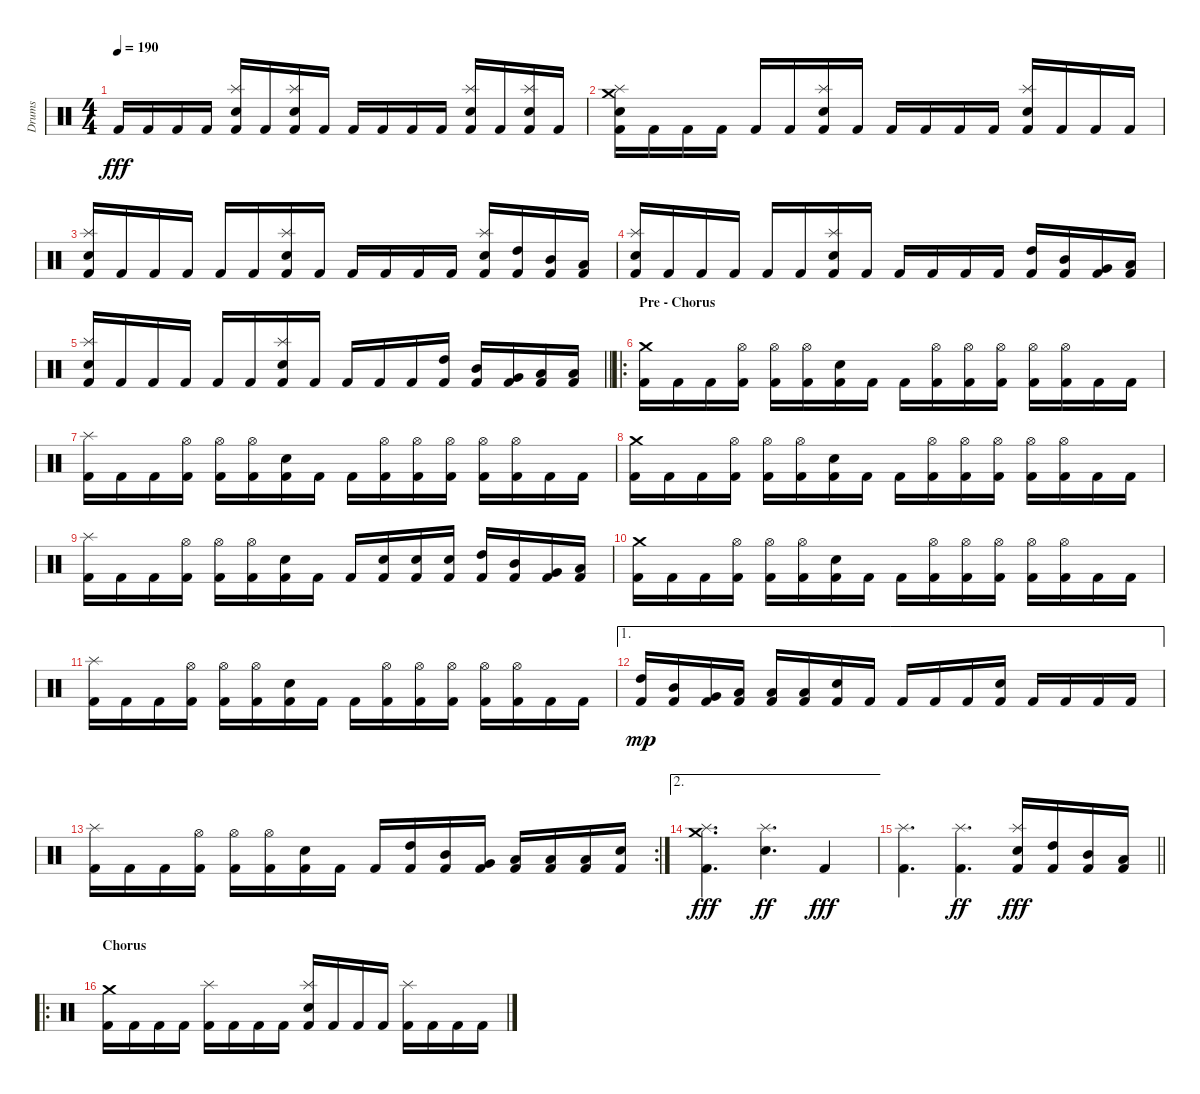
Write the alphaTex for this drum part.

\track ("Drums" "Drums") {instrument percussion}
\staff {score}
\articulation defaults
\ts (4 4)
\tempo 190
\clef neutral
\ks c "Kick (hit) 2".16{dy fff} "Kick (hit) 2".16 "Kick (hit) 2".16 "Kick (hit) 2".16
("Splash (hit)" "Electric Snare (hit)" "Kick (hit) 2").16 "Kick (hit) 2".16 ("Splash (hit)" "Electric Snare (hit)" "Kick (hit) 2").16 "Kick (hit) 2".16 "Kick (hit) 2".16 "Kick (hit) 2".16 "Kick (hit) 2".16 "Kick (hit) 2".16 ("Splash (hit)" "Electric Snare (hit)" "Kick (hit) 2").16 "Kick (hit) 2".16 ("Splash (hit)" "Electric Snare (hit)" "Kick (hit) 2").16 "Kick (hit) 2".16 |
("Crash medium (hit)" "Splash (hit)" "Electric Snare (hit)" "Kick (hit) 2").16 "Kick (hit) 2".16 "Kick (hit) 2".16 "Kick (hit) 2".16 "Kick (hit) 2".16 "Kick (hit) 2".16 ("Splash (hit)" "Electric Snare (hit)" "Kick (hit) 2").16 "Kick (hit) 2".16 "Kick (hit) 2".16 "Kick (hit) 2".16 "Kick (hit) 2".16 "Kick (hit) 2".16 ("Splash (hit)" "Electric Snare (hit)" "Kick (hit) 2").16 "Kick (hit) 2".16 "Kick (hit) 2".16 "Kick (hit) 2".16 |
("Splash (hit)" "Electric Snare (hit)" "Kick (hit) 2").16 "Kick (hit) 2".16 "Kick (hit) 2".16 "Kick (hit) 2".16 "Kick (hit) 2".16 "Kick (hit) 2".16 ("Splash (hit)" "Electric Snare (hit)" "Kick (hit) 2").16 "Kick (hit) 2".16 "Kick (hit) 2".16 "Kick (hit) 2".16 "Kick (hit) 2".16 "Kick (hit) 2".16 ("Splash (hit)" "Electric Snare (hit)" "Kick (hit) 2").16 ("High Tom (hit)" "Kick (hit) 2").16 ("Mid Tom (hit)" "Kick (hit) 2").16 ("Low Tom (hit)" "Kick (hit) 2").16 |
("Splash (hit)" "Electric Snare (hit)" "Kick (hit) 2").16 "Kick (hit) 2".16 "Kick (hit) 2".16 "Kick (hit) 2".16 "Kick (hit) 2".16 "Kick (hit) 2".16 ("Splash (hit)" "Electric Snare (hit)" "Kick (hit) 2").16 "Kick (hit) 2".16 "Kick (hit) 2".16 "Kick (hit) 2".16 "Kick (hit) 2".16 "Kick (hit) 2".16 ("High Tom (hit)" "Kick (hit) 2").16 ("Mid Tom (hit)" "Kick (hit) 2").16 ("Very Low Tom (hit)" "Kick (hit) 2").16 ("Low Tom (hit)" "Kick (hit) 2").16 |
\barLineRight lightlight
("Splash (hit)" "Electric Snare (hit)" "Kick (hit) 2").16 "Kick (hit) 2".16 "Kick (hit) 2".16 "Kick (hit) 2".16 "Kick (hit) 2".16 "Kick (hit) 2".16 ("Splash (hit)" "Electric Snare (hit)" "Kick (hit) 2").16 "Kick (hit) 2".16 "Kick (hit) 2".16 "Kick (hit) 2".16 "Kick (hit) 2".16 ("High Tom (hit)" "Kick (hit) 2").16 ("Mid Tom (hit)" "Kick (hit) 2").16 ("Very Low Tom (hit)" "Kick (hit) 2").16 ("Low Tom (hit)" "Kick (hit) 2").16 ("Low Floor Tom (hit)" "Kick (hit) 2").16 |
\ro
\section ("" "Pre - Chorus")
("Crash medium (hit)" "Kick (hit) 2").16 "Kick (hit) 2".16 "Kick (hit) 2".16 ("Hi-Hat (open)" "Kick (hit) 2").16 ("Hi-Hat (open)" "Kick (hit) 2").16 ("Hi-Hat (open)" "Kick (hit) 2").16 ("Electric Snare (hit)" "Kick (hit) 2").16 "Kick (hit) 2".16 "Kick (hit) 2".16 ("Hi-Hat (open)" "Kick (hit) 2").16 ("Hi-Hat (open)" "Kick (hit) 2").16 ("Hi-Hat (open)" "Kick (hit) 2").16 ("Hi-Hat (open)" "Kick (hit) 2").16 ("Hi-Hat (open)" "Kick (hit) 2").16 "Kick (hit) 2".16 "Kick (hit) 2".16 |
("Splash (hit)" "Kick (hit) 2").16 "Kick (hit) 2".16 "Kick (hit) 2".16 ("Hi-Hat (open)" "Kick (hit) 2").16 ("Hi-Hat (open)" "Kick (hit) 2").16 ("Hi-Hat (open)" "Kick (hit) 2").16 ("Electric Snare (hit)" "Kick (hit) 2").16 "Kick (hit) 2".16 "Kick (hit) 2".16 ("Hi-Hat (open)" "Kick (hit) 2").16 ("Hi-Hat (open)" "Kick (hit) 2").16 ("Hi-Hat (open)" "Kick (hit) 2").16 ("Hi-Hat (open)" "Kick (hit) 2").16 ("Hi-Hat (open)" "Kick (hit) 2").16 "Kick (hit) 2".16 "Kick (hit) 2".16 |
("Crash medium (hit)" "Kick (hit) 2").16 "Kick (hit) 2".16 "Kick (hit) 2".16 ("Hi-Hat (open)" "Kick (hit) 2").16 ("Hi-Hat (open)" "Kick (hit) 2").16 ("Hi-Hat (open)" "Kick (hit) 2").16 ("Electric Snare (hit)" "Kick (hit) 2").16 "Kick (hit) 2".16 "Kick (hit) 2".16 ("Hi-Hat (open)" "Kick (hit) 2").16 ("Hi-Hat (open)" "Kick (hit) 2").16 ("Hi-Hat (open)" "Kick (hit) 2").16 ("Hi-Hat (open)" "Kick (hit) 2").16 ("Hi-Hat (open)" "Kick (hit) 2").16 "Kick (hit) 2".16 "Kick (hit) 2".16 |
("Splash (hit)" "Kick (hit) 2").16 "Kick (hit) 2".16 "Kick (hit) 2".16 ("Hi-Hat (open)" "Kick (hit) 2").16 ("Hi-Hat (open)" "Kick (hit) 2").16 ("Hi-Hat (open)" "Kick (hit) 2").16 ("Electric Snare (hit)" "Kick (hit) 2").16 "Kick (hit) 2".16 "Kick (hit) 2".16 ("Electric Snare (hit)" "Kick (hit) 2").16 ("Electric Snare (hit)" "Kick (hit) 2").16 ("Electric Snare (hit)" "Kick (hit) 2").16 ("High Tom (hit)" "Kick (hit) 2").16 ("Mid Tom (hit)" "Kick (hit) 2").16 ("Very Low Tom (hit)" "Kick (hit) 2").16 ("Low Tom (hit)" "Kick (hit) 2").16 |
("Crash medium (hit)" "Kick (hit) 2").16 "Kick (hit) 2".16 "Kick (hit) 2".16 ("Hi-Hat (open)" "Kick (hit) 2").16 ("Hi-Hat (open)" "Kick (hit) 2").16 ("Hi-Hat (open)" "Kick (hit) 2").16 ("Electric Snare (hit)" "Kick (hit) 2").16 "Kick (hit) 2".16 "Kick (hit) 2".16 ("Hi-Hat (open)" "Kick (hit) 2").16 ("Hi-Hat (open)" "Kick (hit) 2").16 ("Hi-Hat (open)" "Kick (hit) 2").16 ("Hi-Hat (open)" "Kick (hit) 2").16 ("Hi-Hat (open)" "Kick (hit) 2").16 "Kick (hit) 2".16 "Kick (hit) 2".16 |
("Splash (hit)" "Kick (hit) 2").16 "Kick (hit) 2".16 "Kick (hit) 2".16 ("Hi-Hat (open)" "Kick (hit) 2").16 ("Hi-Hat (open)" "Kick (hit) 2").16 ("Hi-Hat (open)" "Kick (hit) 2").16 ("Electric Snare (hit)" "Kick (hit) 2").16 "Kick (hit) 2".16 "Kick (hit) 2".16 ("Hi-Hat (open)" "Kick (hit) 2").16 ("Hi-Hat (open)" "Kick (hit) 2").16 ("Hi-Hat (open)" "Kick (hit) 2").16 ("Hi-Hat (open)" "Kick (hit) 2").16 ("Hi-Hat (open)" "Kick (hit) 2").16 "Kick (hit) 2".16 "Kick (hit) 2".16 |
\ae 1
("High Tom (hit)" "Kick (hit) 2").16{dy mp} ("Mid Tom (hit)" "Kick (hit) 2").16 ("Very Low Tom (hit)" "Kick (hit) 2").16 ("Low Tom (hit)" "Kick (hit) 2").16 ("Low Floor Tom (hit)" "Kick (hit) 2").16 ("Low Tom (hit)" "Kick (hit) 2").16 ("Electric Snare (hit)" "Kick (hit) 2").16 "Kick (hit) 2".16 "Kick (hit) 2".16 "Kick (hit) 2".16 "Kick (hit) 2".16 ("Electric Snare (hit)" "Kick (hit) 2").16 "Kick (hit) 2".16 "Kick (hit) 2".16 "Kick (hit) 2".16 "Kick (hit) 2".16 |
\rc 2
("Splash (hit)" "Kick (hit) 2").16 "Kick (hit) 2".16 "Kick (hit) 2".16 ("Hi-Hat (open)" "Kick (hit) 2").16 ("Hi-Hat (open)" "Kick (hit) 2").16 ("Hi-Hat (open)" "Kick (hit) 2").16 ("Electric Snare (hit)" "Kick (hit) 2").16 "Kick (hit) 2".16 "Kick (hit) 2".16 ("High Tom (hit)" "Kick (hit) 2").16 ("Mid Tom (hit)" "Kick (hit) 2").16 ("Very Low Tom (hit)" "Kick (hit) 2").16 ("Low Tom (hit)" "Kick (hit) 2").16 ("Low Floor Tom (hit)" "Kick (hit) 2").16 ("Low Tom (hit)" "Kick (hit) 2").16 ("Electric Snare (hit)" "Kick (hit) 2").16 |
\ae 2
("Crash medium (hit)" "Splash (hit)" "Kick (hit) 2").4{d dy fff} ("Splash (hit)" "Electric Snare (hit)").4{d dy ff} "Kick (hit) 2".4{dy fff} |
\barLineRight lightlight
("Splash (hit)" "Kick (hit) 2").4{d} ("Splash (hit)" "Kick (hit) 2").4{d dy ff} ("Splash (hit)" "Electric Snare (hit)" "Kick (hit) 2").16{dy fff} ("High Tom (hit)" "Kick (hit) 2").16 ("Mid Tom (hit)" "Kick (hit) 2").16 ("Low Tom (hit)" "Kick (hit) 2").16 |
\ro
\section ("" "Chorus")
("Crash medium (hit)" "Kick (hit) 2").16 "Kick (hit) 2".16 "Kick (hit) 2".16 "Kick (hit) 2".16 ("Splash (hit)" "Kick (hit) 2").16 "Kick (hit) 2".16 "Kick (hit) 2".16 "Kick (hit) 2".16 ("Splash (hit)" "Electric Snare (hit)" "Kick (hit) 2").16 "Kick (hit) 2".16 "Kick (hit) 2".16 "Kick (hit) 2".16 ("Splash (hit)" "Kick (hit) 2").16 "Kick (hit) 2".16 "Kick (hit) 2".16 "Kick (hit) 2".16
